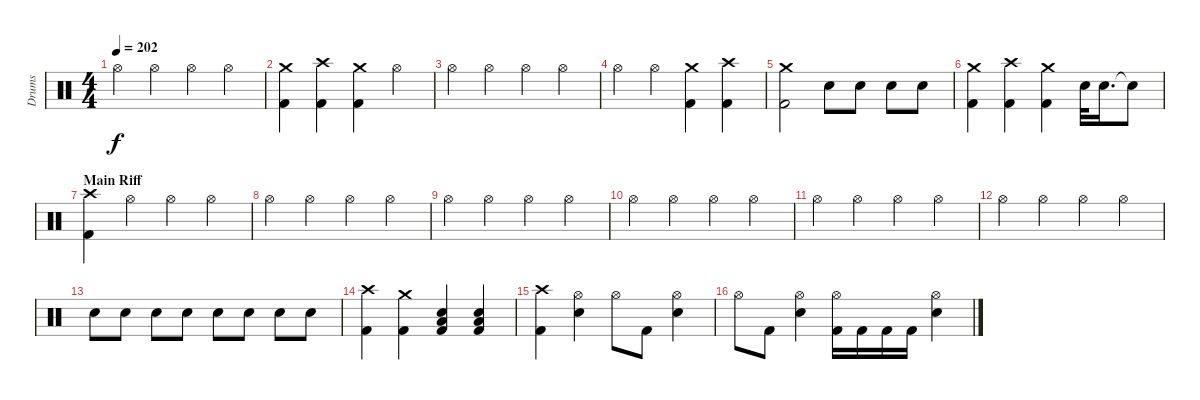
\track ("Drums" "Drums") {instrument percussion}
\staff {score}
\articulation defaults
\ts (4 4)
\tempo 202
\clef neutral
\ks c "Hi-Hat (open)".4{dy f} "Hi-Hat (open)".4 "Hi-Hat (open)".4 "Hi-Hat (open)".4
|
("Crash medium (hit)" "Kick (hit) 2").4 ("Crash high (hit)" "Kick (hit) 2").4 ("Crash medium (hit)" "Kick (hit) 2").4 "Hi-Hat (open)".4 |
"Hi-Hat (open)".4 "Hi-Hat (open)".4 "Hi-Hat (open)".4 "Hi-Hat (open)".4 |
"Hi-Hat (open)".4 "Hi-Hat (open)".4 ("Crash medium (hit)" "Kick (hit) 2").4 ("Crash high (hit)" "Kick (hit) 2").4 |
("Crash medium (hit)" "Kick (hit) 2").2 "Electric Snare (hit)".8 "Electric Snare (hit)".8 "Electric Snare (hit)".8 "Electric Snare (hit)".8 |
("Crash medium (hit)" "Kick (hit) 2").4 ("Crash high (hit)" "Kick (hit) 2").4 ("Crash medium (hit)" "Kick (hit) 2").4 "Electric Snare (hit)".32 "Electric Snare (hit)".16{d} "Electric Snare (hit)"{t}.8 |
\section ("" "Main Riff")
("Crash high (hit)" "Kick (hit) 2").4 "Hi-Hat (open)".4 "Hi-Hat (open)".4 "Hi-Hat (open)".4 |
"Hi-Hat (open)".4 "Hi-Hat (open)".4 "Hi-Hat (open)".4 "Hi-Hat (open)".4 |
"Hi-Hat (open)".4 "Hi-Hat (open)".4 "Hi-Hat (open)".4 "Hi-Hat (open)".4 |
"Hi-Hat (open)".4 "Hi-Hat (open)".4 "Hi-Hat (open)".4 "Hi-Hat (open)".4 |
"Hi-Hat (open)".4 "Hi-Hat (open)".4 "Hi-Hat (open)".4 "Hi-Hat (open)".4 |
"Hi-Hat (open)".4 "Hi-Hat (open)".4 "Hi-Hat (open)".4 "Hi-Hat (open)".4 |
"Electric Snare (hit)".8 "Electric Snare (hit)".8 "Electric Snare (hit)".8 "Electric Snare (hit)".8 "Electric Snare (hit)".8 "Electric Snare (hit)".8 "Electric Snare (hit)".8 "Electric Snare (hit)".8 |
("Crash high (hit)" "Kick (hit) 2").4 ("Crash medium (hit)" "Kick (hit) 2").4 ("Low Floor Tom (hit)" "Electric Snare (hit)" "Kick (hit) 2").4 ("Low Floor Tom (hit)" "Electric Snare (hit)" "Kick (hit) 2").4 |
("Crash high (hit)" "Kick (hit) 2").4 ("Hi-Hat (open)" "Electric Snare (hit)").4 "Hi-Hat (open)".8 "Kick (hit) 2".8 ("Hi-Hat (open)" "Electric Snare (hit)").4 |
"Hi-Hat (open)".8 "Kick (hit) 2".8 ("Hi-Hat (open)" "Electric Snare (hit)").4 ("Hi-Hat (open)" "Kick (hit) 2").16 "Kick (hit) 2".16 "Kick (hit) 2".16 "Kick (hit) 2".16 ("Hi-Hat (open)" "Electric Snare (hit)").4
